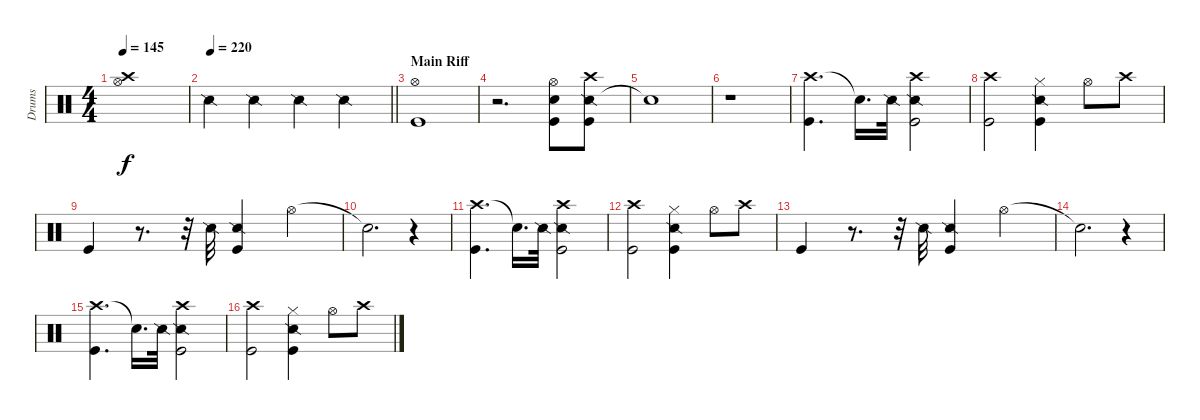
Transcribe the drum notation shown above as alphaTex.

\track ("Drums" "Drums") {instrument percussion}
\staff {score}
\articulation defaults
\ts (4 4)
\tempo 145
\clef neutral
\ks c
("Hi-Hat (open)" "Crash high (hit)").1{dy f} |
\tempo 220
\barLineRight lightlight "Snare (side stick) 2".4 "Snare (side stick) 2".4 "Snare (side stick) 2".4 "Snare (side stick) 2".4
|
\section ("" "Main Riff")
("Kick (hit)" "Hi-Hat (open)").1 |
r.2{d} ("Snare (hit) 2" "Hi-Hat (open)" "Kick (hit)").8 ("Snare (side stick) 2" "Crash high (hit)" "Kick (hit)").8 |
"Snare (hit)"{t}.1 |
r.1 |
("Crash high (hit)" "Kick (hit)").4{d} "Snare (hit)"{t}.16{d} "Snare (side stick) 2".32 ("Crash high (hit)" "Snare (side stick) 2" "Kick (hit)").2 |
("Crash high (hit)" "Kick (hit)").2 ("Hi-Hat (closed)" "Snare (side stick) 2" "Kick (hit)").4 "Hi-Hat (open)".8 "Crash high (hit)".8 |
"Kick (hit)".4 r.8{d} r.32 "Snare (side stick) 2".32 ("Snare (side stick) 2" "Kick (hit)").4 "Hi-Hat (open)".4 |
"Snare (hit)"{t}.2{d} r.4 |
("Crash high (hit)" "Kick (hit)").4{d} "Snare (hit)"{t}.16{d} "Snare (side stick) 2".32 ("Crash high (hit)" "Snare (side stick) 2" "Kick (hit)").2 |
("Crash high (hit)" "Kick (hit)").2 ("Hi-Hat (closed)" "Snare (side stick) 2" "Kick (hit)").4 "Hi-Hat (open)".8 "Crash high (hit)".8 |
"Kick (hit)".4 r.8{d} r.32 "Snare (side stick) 2".32 ("Snare (side stick) 2" "Kick (hit)").4 "Hi-Hat (open)".4 |
"Snare (hit)"{t}.2{d} r.4 |
("Crash high (hit)" "Kick (hit)").4{d} "Snare (hit)"{t}.16{d} "Snare (side stick) 2".32 ("Crash high (hit)" "Snare (side stick) 2" "Kick (hit)").2 |
("Crash high (hit)" "Kick (hit)").2 ("Hi-Hat (closed)" "Snare (side stick) 2" "Kick (hit)").4 "Hi-Hat (open)".8 "Crash high (hit)".8
